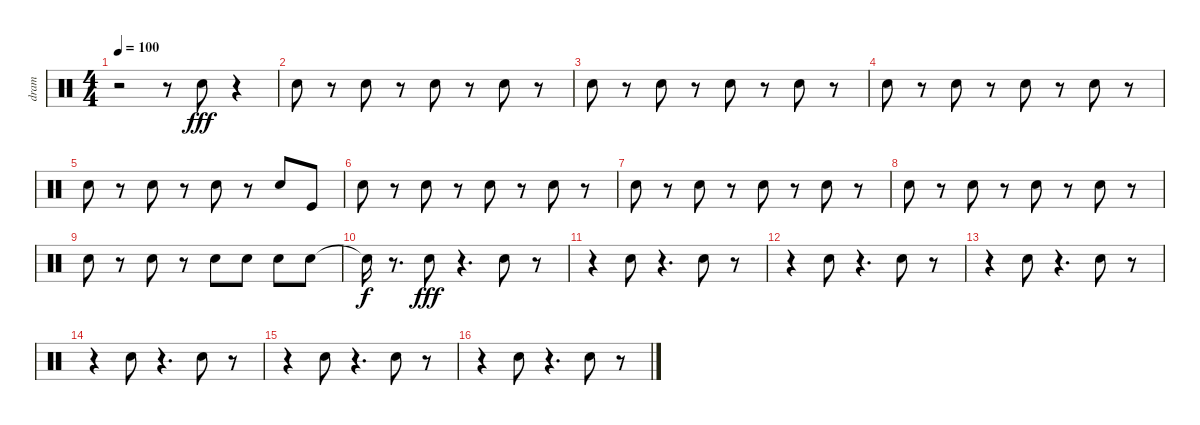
\track ("dram" "dram") {instrument percussion}
\staff {score}
\articulation defaults
\ts (4 4)
\tempo 100
\clef neutral
\ks c
r.2{dy fff} r.8 "Snare (hit) 2".8{volume 16} r.4 |
"Snare (hit) 2".8 r.8 "Snare (hit) 2".8 r.8 "Snare (hit) 2".8 r.8 "Snare (hit) 2".8 r.8 |
"Snare (hit) 2".8 r.8 "Snare (hit) 2".8 r.8 "Snare (hit) 2".8 r.8 "Snare (hit) 2".8 r.8 |
"Snare (hit) 2".8 r.8 "Snare (hit) 2".8 r.8 "Snare (hit) 2".8 r.8 "Snare (hit) 2".8 r.8 |
"Snare (hit) 2".8 r.8 "Snare (hit) 2".8 r.8 "Snare (hit) 2".8 r.8 "Snare (hit) 2".8 "Kick (hit)".8 |
"Snare (hit) 2".8 r.8 "Snare (hit) 2".8 r.8 "Snare (hit) 2".8 r.8 "Snare (hit) 2".8 r.8 |
"Snare (hit) 2".8 r.8 "Snare (hit) 2".8 r.8 "Snare (hit) 2".8 r.8 "Snare (hit) 2".8 r.8 |
"Snare (hit) 2".8 r.8 "Snare (hit) 2".8 r.8 "Snare (hit) 2".8 r.8 "Snare (hit) 2".8 r.8 |
"Snare (hit) 2".8 r.8 "Snare (hit) 2".8 r.8 "Snare (hit) 2".8 "Snare (hit) 2".8 "Snare (hit) 2".8 "Snare (hit) 2".8 |
"Snare (hit)"{t}.16{dy f} r.8{d} "Snare (hit) 2".8{dy fff} r.4{d} "Snare (hit) 2".8 r.8 |
r.4 "Snare (hit) 2".8 r.4{d} "Snare (hit) 2".8 r.8 |
r.4 "Snare (hit) 2".8 r.4{d} "Snare (hit) 2".8 r.8 |
r.4 "Snare (hit) 2".8 r.4{d} "Snare (hit) 2".8 r.8 |
r.4 "Snare (hit) 2".8 r.4{d} "Snare (hit) 2".8 r.8 |
r.4 "Snare (hit) 2".8 r.4{d} "Snare (hit) 2".8 r.8 |
r.4 "Snare (hit) 2".8 r.4{d} "Snare (hit) 2".8 r.8
